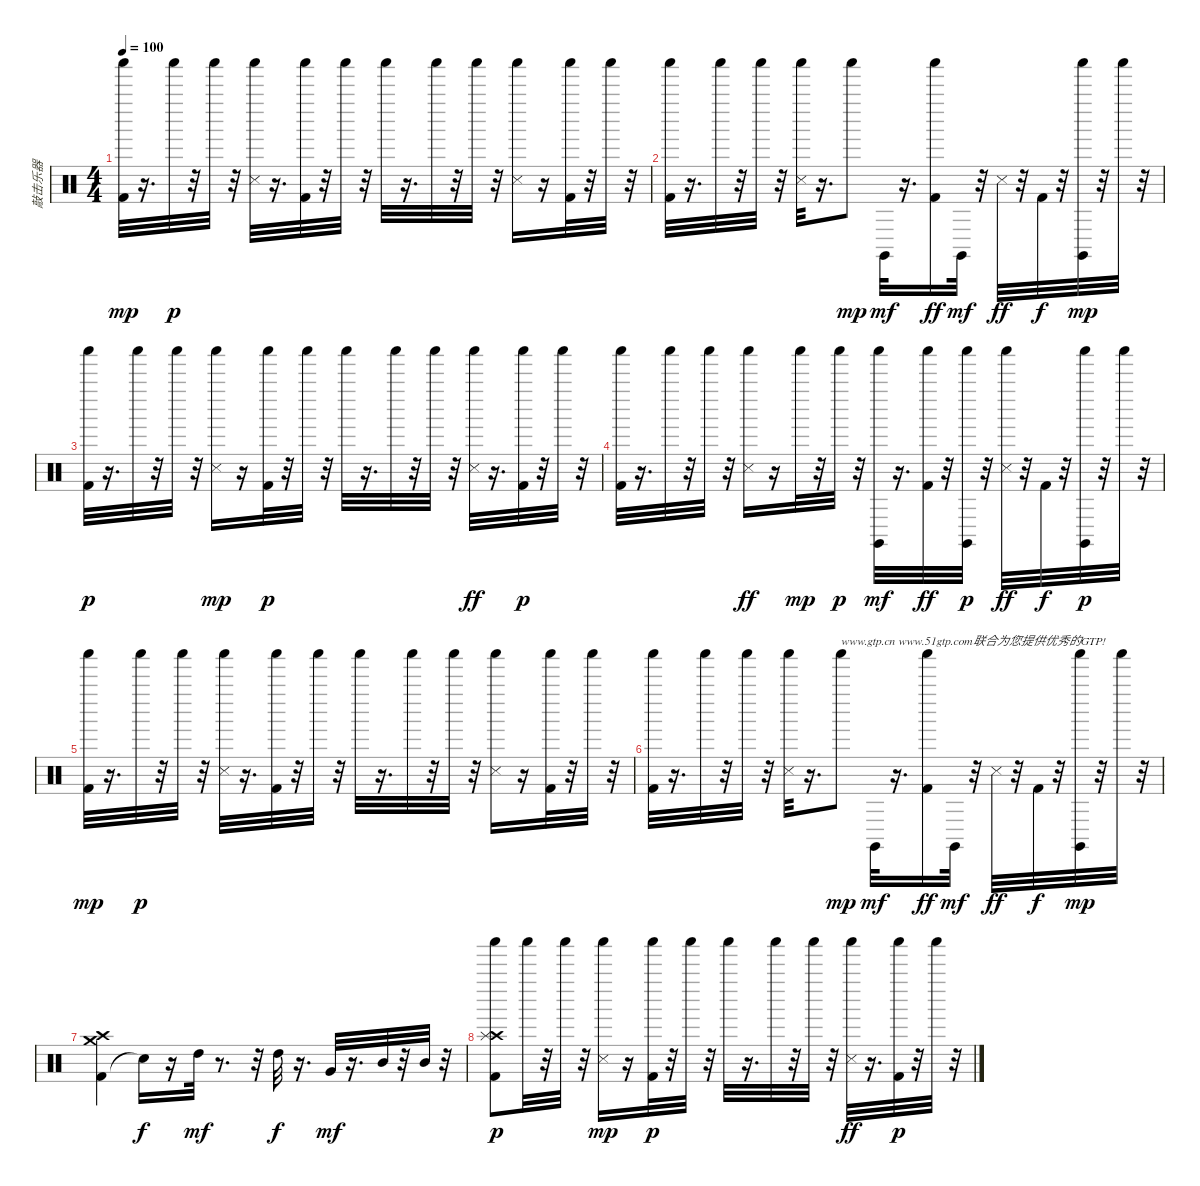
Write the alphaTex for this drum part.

\track ("敲击乐器" "敲击乐器") {instrument percussion}
\staff {score}
\articulation defaults
\ts (4 4)
\tempo 100
\clef neutral
\ks c
("Kick (hit) 2" "Shaker (hit)").32{dy mp} r.16{d} "Shaker (hit)".32{dy p} r.32 "Shaker (hit)".32 r.32 ("Snare (side stick) 3" "Shaker (hit)").32 r.16{d} ("Kick (hit) 2" "Shaker (hit)").32 r.32 "Shaker (hit)".32 r.32 "Shaker (hit)".32 r.16{d} "Shaker (hit)".32 r.32 "Shaker (hit)".32 r.32 ("Snare (side stick) 3" "Shaker (hit)").16 r.16 ("Kick (hit) 2" "Shaker (hit)").32 r.32 "Shaker (hit)".32 r.32 |
("Shaker (hit)" "Kick (hit) 2").32 r.16{d} "Shaker (hit)".32 r.32 "Shaker (hit)".32 r.32 ("Snare (side stick) 3" "Shaker (hit)").32 r.16{d} "Shaker (hit)".8{dy mp} "Claves (hit)".32{dy mf} r.16{d} ("Shaker (hit)" "Kick (hit) 2").16{dy ff} "Claves (hit)".32{dy mf} r.32 "Snare (side stick) 3".32{dy ff} r.32 "Kick (hit) 2".32{dy f} r.32 ("Claves (hit)" "Shaker (hit)").32{dy mp} r.32 "Shaker (hit)".32 r.32 |
("Shaker (hit)" "Kick (hit) 2").32{dy p} r.16{d} "Shaker (hit)".32 r.32 "Shaker (hit)".32 r.32 ("Shaker (hit)" "Snare (side stick) 3").16{dy mp} r.16 ("Kick (hit) 2" "Shaker (hit)").32{dy p} r.32 "Shaker (hit)".32 r.32 "Shaker (hit)".32 r.16{d} "Shaker (hit)".32 r.32 "Shaker (hit)".32 r.32 ("Shaker (hit)" "Snare (side stick) 3").32{dy ff} r.16{d} ("Kick (hit) 2" "Shaker (hit)").32{dy p} r.32 "Shaker (hit)".32 r.32 |
("Shaker (hit)" "Kick (hit) 2").32 r.16{d} "Shaker (hit)".32 r.32 "Shaker (hit)".32 r.32 ("Shaker (hit)" "Snare (side stick) 3").16{dy ff} r.16 "Shaker (hit)".32{dy mp} r.32 "Shaker (hit)".32{dy p} r.32 ("Shaker (hit)" "Claves (hit)").32{dy mf} r.16{d} ("Shaker (hit)" "Kick (hit) 2").32{dy ff} r.32 ("Claves (hit)" "Shaker (hit)").32{dy p} r.32 ("Shaker (hit)" "Snare (side stick) 3").32{dy ff} r.32 "Kick (hit) 2".32{dy f} r.32 ("Claves (hit)" "Shaker (hit)").32{dy p} r.32 "Shaker (hit)".32 r.32 |
("Kick (hit) 2" "Shaker (hit)").32{dy mp} r.16{d} "Shaker (hit)".32{dy p} r.32 "Shaker (hit)".32 r.32 ("Snare (side stick) 3" "Shaker (hit)").32 r.16{d} ("Kick (hit) 2" "Shaker (hit)").32 r.32 "Shaker (hit)".32 r.32 "Shaker (hit)".32 r.16{d} "Shaker (hit)".32 r.32 "Shaker (hit)".32 r.32 ("Snare (side stick) 3" "Shaker (hit)").16 r.16 ("Kick (hit) 2" "Shaker (hit)").32 r.32 "Shaker (hit)".32 r.32 |
("Shaker (hit)" "Kick (hit) 2").32 r.16{d} "Shaker (hit)".32 r.32 "Shaker (hit)".32 r.32 ("Snare (side stick) 3" "Shaker (hit)").32 r.16{d} "Shaker (hit)".8{txt "www.gtp.cn www.51gtp.com联合为您提供优秀的GTP!" dy mp} "Claves (hit)".32{dy mf} r.16{d} ("Shaker (hit)" "Kick (hit) 2").16{dy ff} "Claves (hit)".32{dy mf} r.32 "Snare (side stick) 3".32{dy ff} r.32 "Kick (hit) 2".32{dy f} r.32 ("Claves (hit)" "Shaker (hit)").32{dy mp} r.32 "Shaker (hit)".32 r.32 |
("Kick (hit) 2" "Crash high (hit)" "Crash medium (hit)").4 "Snare (hit)"{t}.16{dy f} r.16 "High Tom (hit)".32{dy mf} r.8{d} r.32 "High Tom (hit)".32{dy f} r.16{d} "Very Low Tom (hit)".32{dy mf} r.16{d} "Mid Tom (hit)".32 r.32 "Mid Tom (hit)".32 r.32 |
("Crash high (hit)" "Splash (hit)" "Shaker (hit)" "Kick (hit) 2").8{dy p} "Shaker (hit)".32 r.32 "Shaker (hit)".32 r.32 ("Shaker (hit)" "Snare (side stick) 3").16{dy mp} r.16 ("Kick (hit) 2" "Shaker (hit)").32{dy p} r.32 "Shaker (hit)".32 r.32 "Shaker (hit)".32 r.16{d} "Shaker (hit)".32 r.32 "Shaker (hit)".32 r.32 ("Shaker (hit)" "Snare (side stick) 3").32{dy ff} r.16{d} ("Kick (hit) 2" "Shaker (hit)").32{dy p} r.32 "Shaker (hit)".32 r.32
